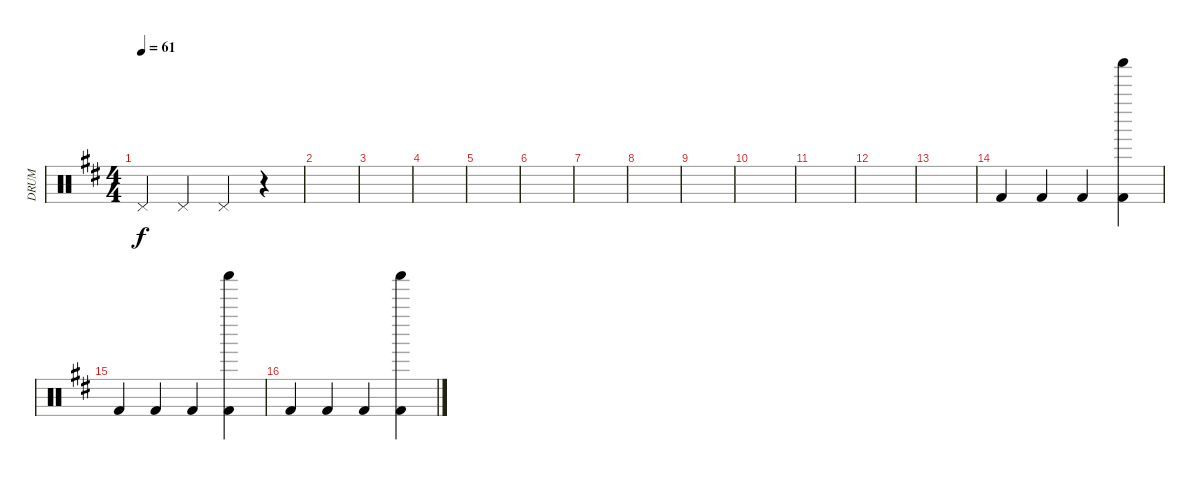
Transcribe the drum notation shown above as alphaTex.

\track ("DRUM" "DRUM") {instrument percussion}
\staff {score}
\articulation defaults
\ts (4 4)
\tempo 61
\clef neutral
\ks d "Pedal Hi-Hat (hit)".4{dy f} "Pedal Hi-Hat (hit)".4 "Pedal Hi-Hat (hit)".4
r.4 |
|
|
|
|
|
|
|
|
|
|
|
|
"Kick (hit) 2".4 "Kick (hit) 2".4 "Kick (hit) 2".4 ("Shaker (hit)" "Kick (hit) 2").4 |
"Kick (hit) 2".4 "Kick (hit) 2".4 "Kick (hit) 2".4 ("Shaker (hit)" "Kick (hit) 2").4 |
"Kick (hit) 2".4 "Kick (hit) 2".4 "Kick (hit) 2".4 ("Shaker (hit)" "Kick (hit) 2").4
